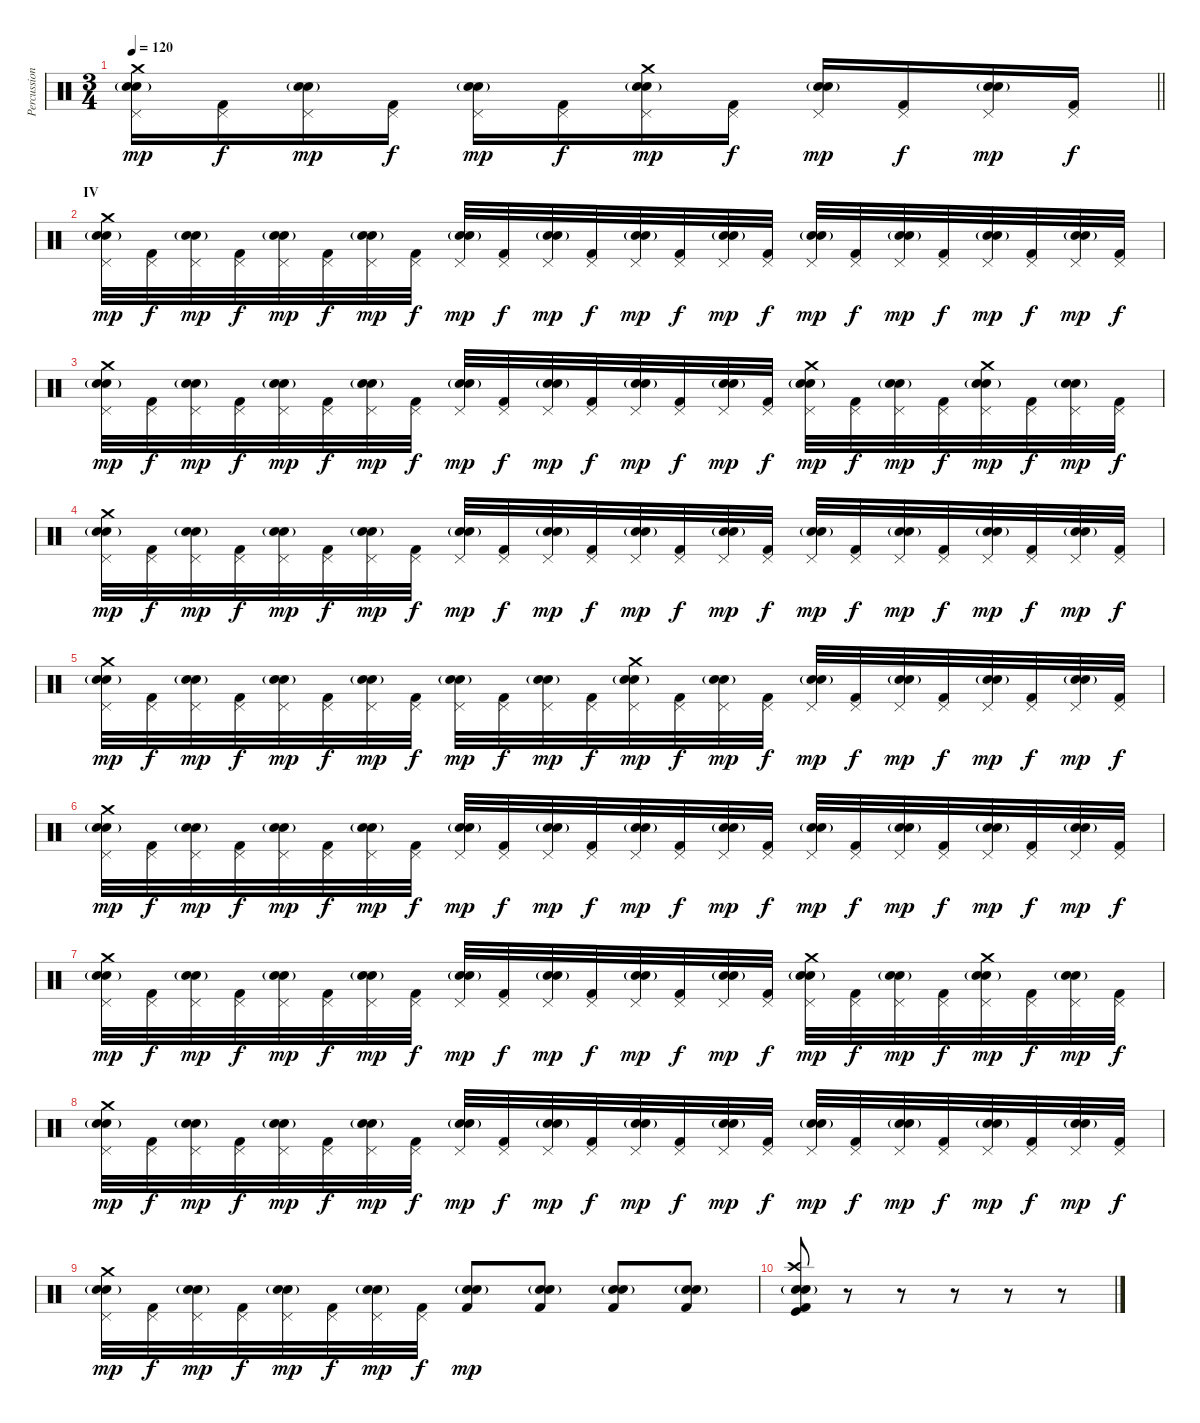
\track ("Percussion" "Percussion") {instrument percussion}
\staff {score}
\articulation defaults
\ts (3 4)
\tempo 120
\clef neutral
\barLineRight lightlight
\ks c
("Crash medium (hit)" "Electric Snare (hit)" "Snare (hit) 2"{g} "Pedal Hi-Hat (hit)").16{dy mp} ("Kick (hit) 2" "Pedal Hi-Hat (hit)").16{dy f} ("Electric Snare (hit)" "Snare (hit) 2"{g} "Pedal Hi-Hat (hit)").16{dy mp} ("Kick (hit) 2" "Pedal Hi-Hat (hit)").16{dy f} ("Electric Snare (hit)" "Snare (hit) 2"{g} "Pedal Hi-Hat (hit)").16{dy mp} ("Kick (hit) 2" "Pedal Hi-Hat (hit)").16{dy f} ("Crash medium (hit)" "Electric Snare (hit)" "Snare (hit) 2"{g} "Pedal Hi-Hat (hit)").16{dy mp} ("Kick (hit) 2" "Pedal Hi-Hat (hit)").16{dy f} ("Electric Snare (hit)" "Snare (hit) 2"{g} "Pedal Hi-Hat (hit)").16{dy mp} ("Kick (hit) 2" "Pedal Hi-Hat (hit)").16{dy f} ("Electric Snare (hit)" "Snare (hit) 2"{g} "Pedal Hi-Hat (hit)").16{dy mp} ("Kick (hit) 2" "Pedal Hi-Hat (hit)").16{dy f} |
\section ("" "IV")
("Crash medium (hit)" "Electric Snare (hit)" "Snare (hit) 2"{g} "Pedal Hi-Hat (hit)").32{dy mp} ("Kick (hit) 2" "Pedal Hi-Hat (hit)").32{dy f} ("Electric Snare (hit)" "Snare (hit) 2"{g} "Pedal Hi-Hat (hit)").32{dy mp} ("Kick (hit) 2" "Pedal Hi-Hat (hit)").32{dy f} ("Electric Snare (hit)" "Snare (hit) 2"{g} "Pedal Hi-Hat (hit)").32{dy mp} ("Kick (hit) 2" "Pedal Hi-Hat (hit)").32{dy f} ("Electric Snare (hit)" "Snare (hit) 2"{g} "Pedal Hi-Hat (hit)").32{dy mp} ("Kick (hit) 2" "Pedal Hi-Hat (hit)").32{dy f} ("Electric Snare (hit)" "Snare (hit) 2"{g} "Pedal Hi-Hat (hit)").32{dy mp} ("Kick (hit) 2" "Pedal Hi-Hat (hit)").32{dy f} ("Electric Snare (hit)" "Snare (hit) 2"{g} "Pedal Hi-Hat (hit)").32{dy mp} ("Kick (hit) 2" "Pedal Hi-Hat (hit)").32{dy f} ("Electric Snare (hit)" "Snare (hit) 2"{g} "Pedal Hi-Hat (hit)").32{dy mp} ("Kick (hit) 2" "Pedal Hi-Hat (hit)").32{dy f} ("Electric Snare (hit)" "Snare (hit) 2"{g} "Pedal Hi-Hat (hit)").32{dy mp} ("Kick (hit) 2" "Pedal Hi-Hat (hit)").32{dy f} ("Electric Snare (hit)" "Snare (hit) 2"{g} "Pedal Hi-Hat (hit)").32{dy mp} ("Kick (hit) 2" "Pedal Hi-Hat (hit)").32{dy f} ("Electric Snare (hit)" "Snare (hit) 2"{g} "Pedal Hi-Hat (hit)").32{dy mp} ("Kick (hit) 2" "Pedal Hi-Hat (hit)").32{dy f} ("Electric Snare (hit)" "Snare (hit) 2"{g} "Pedal Hi-Hat (hit)").32{dy mp} ("Kick (hit) 2" "Pedal Hi-Hat (hit)").32{dy f} ("Electric Snare (hit)" "Snare (hit) 2"{g} "Pedal Hi-Hat (hit)").32{dy mp} ("Kick (hit) 2" "Pedal Hi-Hat (hit)").32{dy f} |
("Crash medium (hit)" "Electric Snare (hit)" "Snare (hit) 2"{g} "Pedal Hi-Hat (hit)").32{dy mp} ("Kick (hit) 2" "Pedal Hi-Hat (hit)").32{dy f} ("Electric Snare (hit)" "Snare (hit) 2"{g} "Pedal Hi-Hat (hit)").32{dy mp} ("Kick (hit) 2" "Pedal Hi-Hat (hit)").32{dy f} ("Electric Snare (hit)" "Snare (hit) 2"{g} "Pedal Hi-Hat (hit)").32{dy mp} ("Kick (hit) 2" "Pedal Hi-Hat (hit)").32{dy f} ("Electric Snare (hit)" "Snare (hit) 2"{g} "Pedal Hi-Hat (hit)").32{dy mp} ("Kick (hit) 2" "Pedal Hi-Hat (hit)").32{dy f} ("Electric Snare (hit)" "Snare (hit) 2"{g} "Pedal Hi-Hat (hit)").32{dy mp} ("Kick (hit) 2" "Pedal Hi-Hat (hit)").32{dy f} ("Electric Snare (hit)" "Snare (hit) 2"{g} "Pedal Hi-Hat (hit)").32{dy mp} ("Kick (hit) 2" "Pedal Hi-Hat (hit)").32{dy f} ("Electric Snare (hit)" "Snare (hit) 2"{g} "Pedal Hi-Hat (hit)").32{dy mp} ("Kick (hit) 2" "Pedal Hi-Hat (hit)").32{dy f} ("Electric Snare (hit)" "Snare (hit) 2"{g} "Pedal Hi-Hat (hit)").32{dy mp} ("Kick (hit) 2" "Pedal Hi-Hat (hit)").32{dy f} ("Crash medium (hit)" "Electric Snare (hit)" "Snare (hit) 2"{g} "Pedal Hi-Hat (hit)").32{dy mp} ("Kick (hit) 2" "Pedal Hi-Hat (hit)").32{dy f} ("Electric Snare (hit)" "Snare (hit) 2"{g} "Pedal Hi-Hat (hit)").32{dy mp} ("Kick (hit) 2" "Pedal Hi-Hat (hit)").32{dy f} ("Crash medium (hit)" "Electric Snare (hit)" "Snare (hit) 2"{g} "Pedal Hi-Hat (hit)").32{dy mp} ("Kick (hit) 2" "Pedal Hi-Hat (hit)").32{dy f} ("Electric Snare (hit)" "Snare (hit) 2"{g} "Pedal Hi-Hat (hit)").32{dy mp} ("Kick (hit) 2" "Pedal Hi-Hat (hit)").32{dy f} |
("Crash medium (hit)" "Electric Snare (hit)" "Snare (hit) 2"{g} "Pedal Hi-Hat (hit)").32{dy mp} ("Kick (hit) 2" "Pedal Hi-Hat (hit)").32{dy f} ("Electric Snare (hit)" "Snare (hit) 2"{g} "Pedal Hi-Hat (hit)").32{dy mp} ("Kick (hit) 2" "Pedal Hi-Hat (hit)").32{dy f} ("Electric Snare (hit)" "Snare (hit) 2"{g} "Pedal Hi-Hat (hit)").32{dy mp} ("Kick (hit) 2" "Pedal Hi-Hat (hit)").32{dy f} ("Electric Snare (hit)" "Snare (hit) 2"{g} "Pedal Hi-Hat (hit)").32{dy mp} ("Kick (hit) 2" "Pedal Hi-Hat (hit)").32{dy f} ("Electric Snare (hit)" "Snare (hit) 2"{g} "Pedal Hi-Hat (hit)").32{dy mp} ("Kick (hit) 2" "Pedal Hi-Hat (hit)").32{dy f} ("Electric Snare (hit)" "Snare (hit) 2"{g} "Pedal Hi-Hat (hit)").32{dy mp} ("Kick (hit) 2" "Pedal Hi-Hat (hit)").32{dy f} ("Electric Snare (hit)" "Snare (hit) 2"{g} "Pedal Hi-Hat (hit)").32{dy mp} ("Kick (hit) 2" "Pedal Hi-Hat (hit)").32{dy f} ("Electric Snare (hit)" "Snare (hit) 2"{g} "Pedal Hi-Hat (hit)").32{dy mp} ("Kick (hit) 2" "Pedal Hi-Hat (hit)").32{dy f} ("Electric Snare (hit)" "Snare (hit) 2"{g} "Pedal Hi-Hat (hit)").32{dy mp} ("Kick (hit) 2" "Pedal Hi-Hat (hit)").32{dy f} ("Electric Snare (hit)" "Snare (hit) 2"{g} "Pedal Hi-Hat (hit)").32{dy mp} ("Kick (hit) 2" "Pedal Hi-Hat (hit)").32{dy f} ("Electric Snare (hit)" "Snare (hit) 2"{g} "Pedal Hi-Hat (hit)").32{dy mp} ("Kick (hit) 2" "Pedal Hi-Hat (hit)").32{dy f} ("Electric Snare (hit)" "Snare (hit) 2"{g} "Pedal Hi-Hat (hit)").32{dy mp} ("Kick (hit) 2" "Pedal Hi-Hat (hit)").32{dy f} |
("Crash medium (hit)" "Electric Snare (hit)" "Snare (hit) 2"{g} "Pedal Hi-Hat (hit)").32{dy mp} ("Kick (hit) 2" "Pedal Hi-Hat (hit)").32{dy f} ("Electric Snare (hit)" "Snare (hit) 2"{g} "Pedal Hi-Hat (hit)").32{dy mp} ("Kick (hit) 2" "Pedal Hi-Hat (hit)").32{dy f} ("Electric Snare (hit)" "Snare (hit) 2"{g} "Pedal Hi-Hat (hit)").32{dy mp} ("Kick (hit) 2" "Pedal Hi-Hat (hit)").32{dy f} ("Electric Snare (hit)" "Snare (hit) 2"{g} "Pedal Hi-Hat (hit)").32{dy mp} ("Kick (hit) 2" "Pedal Hi-Hat (hit)").32{dy f} ("Electric Snare (hit)" "Snare (hit) 2"{g} "Pedal Hi-Hat (hit)").32{dy mp} ("Kick (hit) 2" "Pedal Hi-Hat (hit)").32{dy f} ("Electric Snare (hit)" "Snare (hit) 2"{g} "Pedal Hi-Hat (hit)").32{dy mp} ("Kick (hit) 2" "Pedal Hi-Hat (hit)").32{dy f} ("Crash medium (hit)" "Electric Snare (hit)" "Snare (hit) 2"{g} "Pedal Hi-Hat (hit)").32{dy mp} ("Kick (hit) 2" "Pedal Hi-Hat (hit)").32{dy f} ("Electric Snare (hit)" "Snare (hit) 2"{g} "Pedal Hi-Hat (hit)").32{dy mp} ("Kick (hit) 2" "Pedal Hi-Hat (hit)").32{dy f} ("Electric Snare (hit)" "Snare (hit) 2"{g} "Pedal Hi-Hat (hit)").32{dy mp} ("Kick (hit) 2" "Pedal Hi-Hat (hit)").32{dy f} ("Electric Snare (hit)" "Snare (hit) 2"{g} "Pedal Hi-Hat (hit)").32{dy mp} ("Kick (hit) 2" "Pedal Hi-Hat (hit)").32{dy f} ("Electric Snare (hit)" "Snare (hit) 2"{g} "Pedal Hi-Hat (hit)").32{dy mp} ("Kick (hit) 2" "Pedal Hi-Hat (hit)").32{dy f} ("Electric Snare (hit)" "Snare (hit) 2"{g} "Pedal Hi-Hat (hit)").32{dy mp} ("Kick (hit) 2" "Pedal Hi-Hat (hit)").32{dy f} |
("Crash medium (hit)" "Electric Snare (hit)" "Snare (hit) 2"{g} "Pedal Hi-Hat (hit)").32{dy mp} ("Kick (hit) 2" "Pedal Hi-Hat (hit)").32{dy f} ("Electric Snare (hit)" "Snare (hit) 2"{g} "Pedal Hi-Hat (hit)").32{dy mp} ("Kick (hit) 2" "Pedal Hi-Hat (hit)").32{dy f} ("Electric Snare (hit)" "Snare (hit) 2"{g} "Pedal Hi-Hat (hit)").32{dy mp} ("Kick (hit) 2" "Pedal Hi-Hat (hit)").32{dy f} ("Electric Snare (hit)" "Snare (hit) 2"{g} "Pedal Hi-Hat (hit)").32{dy mp} ("Kick (hit) 2" "Pedal Hi-Hat (hit)").32{dy f} ("Electric Snare (hit)" "Snare (hit) 2"{g} "Pedal Hi-Hat (hit)").32{dy mp} ("Kick (hit) 2" "Pedal Hi-Hat (hit)").32{dy f} ("Electric Snare (hit)" "Snare (hit) 2"{g} "Pedal Hi-Hat (hit)").32{dy mp} ("Kick (hit) 2" "Pedal Hi-Hat (hit)").32{dy f} ("Electric Snare (hit)" "Snare (hit) 2"{g} "Pedal Hi-Hat (hit)").32{dy mp} ("Kick (hit) 2" "Pedal Hi-Hat (hit)").32{dy f} ("Electric Snare (hit)" "Snare (hit) 2"{g} "Pedal Hi-Hat (hit)").32{dy mp} ("Kick (hit) 2" "Pedal Hi-Hat (hit)").32{dy f} ("Electric Snare (hit)" "Snare (hit) 2"{g} "Pedal Hi-Hat (hit)").32{dy mp} ("Kick (hit) 2" "Pedal Hi-Hat (hit)").32{dy f} ("Electric Snare (hit)" "Snare (hit) 2"{g} "Pedal Hi-Hat (hit)").32{dy mp} ("Kick (hit) 2" "Pedal Hi-Hat (hit)").32{dy f} ("Electric Snare (hit)" "Snare (hit) 2"{g} "Pedal Hi-Hat (hit)").32{dy mp} ("Kick (hit) 2" "Pedal Hi-Hat (hit)").32{dy f} ("Electric Snare (hit)" "Snare (hit) 2"{g} "Pedal Hi-Hat (hit)").32{dy mp} ("Kick (hit) 2" "Pedal Hi-Hat (hit)").32{dy f} |
("Crash medium (hit)" "Electric Snare (hit)" "Snare (hit) 2"{g} "Pedal Hi-Hat (hit)").32{dy mp} ("Kick (hit) 2" "Pedal Hi-Hat (hit)").32{dy f} ("Electric Snare (hit)" "Snare (hit) 2"{g} "Pedal Hi-Hat (hit)").32{dy mp} ("Kick (hit) 2" "Pedal Hi-Hat (hit)").32{dy f} ("Electric Snare (hit)" "Snare (hit) 2"{g} "Pedal Hi-Hat (hit)").32{dy mp} ("Kick (hit) 2" "Pedal Hi-Hat (hit)").32{dy f} ("Electric Snare (hit)" "Snare (hit) 2"{g} "Pedal Hi-Hat (hit)").32{dy mp} ("Kick (hit) 2" "Pedal Hi-Hat (hit)").32{dy f} ("Electric Snare (hit)" "Snare (hit) 2"{g} "Pedal Hi-Hat (hit)").32{dy mp} ("Kick (hit) 2" "Pedal Hi-Hat (hit)").32{dy f} ("Electric Snare (hit)" "Snare (hit) 2"{g} "Pedal Hi-Hat (hit)").32{dy mp} ("Kick (hit) 2" "Pedal Hi-Hat (hit)").32{dy f} ("Electric Snare (hit)" "Snare (hit) 2"{g} "Pedal Hi-Hat (hit)").32{dy mp} ("Kick (hit) 2" "Pedal Hi-Hat (hit)").32{dy f} ("Electric Snare (hit)" "Snare (hit) 2"{g} "Pedal Hi-Hat (hit)").32{dy mp} ("Kick (hit) 2" "Pedal Hi-Hat (hit)").32{dy f} ("Crash medium (hit)" "Electric Snare (hit)" "Snare (hit) 2"{g} "Pedal Hi-Hat (hit)").32{dy mp} ("Kick (hit) 2" "Pedal Hi-Hat (hit)").32{dy f} ("Electric Snare (hit)" "Snare (hit) 2"{g} "Pedal Hi-Hat (hit)").32{dy mp} ("Kick (hit) 2" "Pedal Hi-Hat (hit)").32{dy f} ("Crash medium (hit)" "Electric Snare (hit)" "Snare (hit) 2"{g} "Pedal Hi-Hat (hit)").32{dy mp} ("Kick (hit) 2" "Pedal Hi-Hat (hit)").32{dy f} ("Electric Snare (hit)" "Snare (hit) 2"{g} "Pedal Hi-Hat (hit)").32{dy mp} ("Kick (hit) 2" "Pedal Hi-Hat (hit)").32{dy f} |
("Crash medium (hit)" "Electric Snare (hit)" "Snare (hit) 2"{g} "Pedal Hi-Hat (hit)").32{dy mp} ("Kick (hit) 2" "Pedal Hi-Hat (hit)").32{dy f} ("Electric Snare (hit)" "Snare (hit) 2"{g} "Pedal Hi-Hat (hit)").32{dy mp} ("Kick (hit) 2" "Pedal Hi-Hat (hit)").32{dy f} ("Electric Snare (hit)" "Snare (hit) 2"{g} "Pedal Hi-Hat (hit)").32{dy mp} ("Kick (hit) 2" "Pedal Hi-Hat (hit)").32{dy f} ("Electric Snare (hit)" "Snare (hit) 2"{g} "Pedal Hi-Hat (hit)").32{dy mp} ("Kick (hit) 2" "Pedal Hi-Hat (hit)").32{dy f} ("Electric Snare (hit)" "Snare (hit) 2"{g} "Pedal Hi-Hat (hit)").32{dy mp} ("Kick (hit) 2" "Pedal Hi-Hat (hit)").32{dy f} ("Electric Snare (hit)" "Snare (hit) 2"{g} "Pedal Hi-Hat (hit)").32{dy mp} ("Kick (hit) 2" "Pedal Hi-Hat (hit)").32{dy f} ("Electric Snare (hit)" "Snare (hit) 2"{g} "Pedal Hi-Hat (hit)").32{dy mp} ("Kick (hit) 2" "Pedal Hi-Hat (hit)").32{dy f} ("Electric Snare (hit)" "Snare (hit) 2"{g} "Pedal Hi-Hat (hit)").32{dy mp} ("Kick (hit) 2" "Pedal Hi-Hat (hit)").32{dy f} ("Electric Snare (hit)" "Snare (hit) 2"{g} "Pedal Hi-Hat (hit)").32{dy mp} ("Kick (hit) 2" "Pedal Hi-Hat (hit)").32{dy f} ("Electric Snare (hit)" "Snare (hit) 2"{g} "Pedal Hi-Hat (hit)").32{dy mp} ("Kick (hit) 2" "Pedal Hi-Hat (hit)").32{dy f} ("Electric Snare (hit)" "Snare (hit) 2"{g} "Pedal Hi-Hat (hit)").32{dy mp} ("Kick (hit) 2" "Pedal Hi-Hat (hit)").32{dy f} ("Electric Snare (hit)" "Snare (hit) 2"{g} "Pedal Hi-Hat (hit)").32{dy mp} ("Kick (hit) 2" "Pedal Hi-Hat (hit)").32{dy f} |
("Crash medium (hit)" "Electric Snare (hit)" "Snare (hit) 2"{g} "Pedal Hi-Hat (hit)").32{dy mp} ("Kick (hit) 2" "Pedal Hi-Hat (hit)").32{dy f} ("Electric Snare (hit)" "Snare (hit) 2"{g} "Pedal Hi-Hat (hit)").32{dy mp} ("Kick (hit) 2" "Pedal Hi-Hat (hit)").32{dy f} ("Electric Snare (hit)" "Snare (hit) 2"{g} "Pedal Hi-Hat (hit)").32{dy mp} ("Kick (hit) 2" "Pedal Hi-Hat (hit)").32{dy f} ("Electric Snare (hit)" "Snare (hit) 2"{g} "Pedal Hi-Hat (hit)").32{dy mp} ("Kick (hit) 2" "Pedal Hi-Hat (hit)").32{dy f} ("Electric Snare (hit)" "Snare (hit) 2"{g} "Kick (hit) 2").8{dy mp} ("Electric Snare (hit)" "Snare (hit) 2"{g} "Kick (hit) 2").8 ("Electric Snare (hit)" "Snare (hit) 2"{g} "Kick (hit) 2").8 ("Electric Snare (hit)" "Snare (hit) 2"{g} "Kick (hit) 2").8 |
("Crash high (hit)" "Electric Snare (hit)" "Snare (hit) 2"{g} "Kick (hit) 2" "Kick (hit)").8 r.8 r.8 r.8 r.8 r.8
